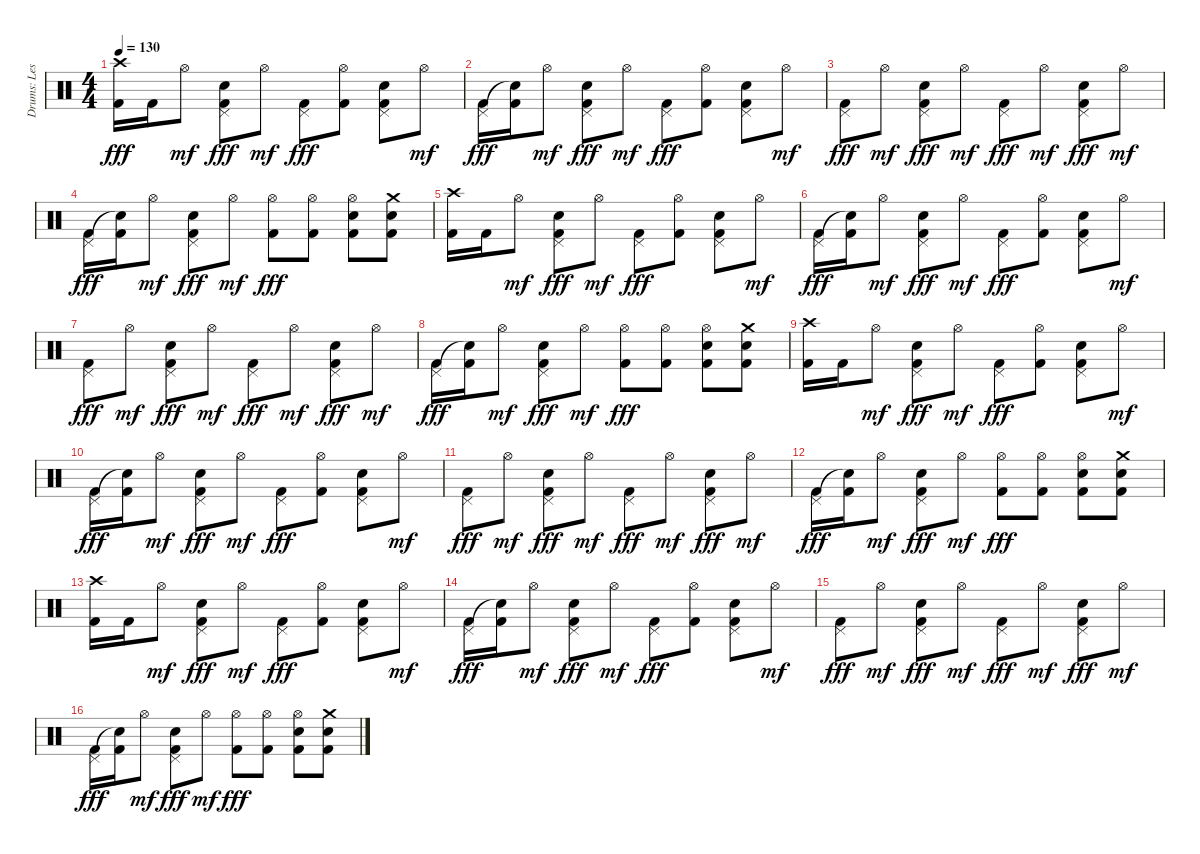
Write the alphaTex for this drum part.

\track ("Drums: Les" "Drums: Les") {instrument percussion}
\staff {score}
\articulation defaults
\ts (4 4)
\tempo 130
\clef neutral
\ks c
("Crash high (hit)" "Kick (hit) 2").16{dy fff} "Kick (hit) 2".16 "Hi-Hat (open)".8{dy mf} ("Pedal Hi-Hat (hit)" "Snare (hit) 2" "Kick (hit) 2").8{dy fff} "Hi-Hat (open)".8{dy mf} ("Pedal Hi-Hat (hit)" "Kick (hit) 2").8{dy fff} ("Hi-Hat (open)" "Kick (hit) 2").8 ("Pedal Hi-Hat (hit)" "Snare (hit) 2" "Kick (hit) 2").8 "Hi-Hat (open)".8{dy mf} |
("Pedal Hi-Hat (hit)" "Kick (hit) 2").16{dy fff} ("Snare (hit)"{t} "Kick (hit) 2").16 "Hi-Hat (open)".8{dy mf} ("Pedal Hi-Hat (hit)" "Snare (hit) 2" "Kick (hit) 2").8{dy fff} "Hi-Hat (open)".8{dy mf} ("Pedal Hi-Hat (hit)" "Kick (hit) 2").8{dy fff} ("Hi-Hat (open)" "Kick (hit) 2").8 ("Pedal Hi-Hat (hit)" "Snare (hit) 2" "Kick (hit) 2").8 "Hi-Hat (open)".8{dy mf} |
("Pedal Hi-Hat (hit)" "Kick (hit) 2").8{dy fff} "Hi-Hat (open)".8{dy mf} ("Pedal Hi-Hat (hit)" "Snare (hit) 2" "Kick (hit) 2").8{dy fff} "Hi-Hat (open)".8{dy mf} ("Pedal Hi-Hat (hit)" "Kick (hit) 2").8{dy fff} "Hi-Hat (open)".8{dy mf} ("Pedal Hi-Hat (hit)" "Snare (hit) 2" "Kick (hit) 2").8{dy fff} "Hi-Hat (open)".8{dy mf} |
("Pedal Hi-Hat (hit)" "Kick (hit) 2").16{dy fff} ("Snare (hit)"{t} "Kick (hit) 2").16 "Hi-Hat (open)".8{dy mf} ("Pedal Hi-Hat (hit)" "Snare (hit) 2" "Kick (hit) 2").8{dy fff} "Hi-Hat (open)".8{dy mf} ("Hi-Hat (open)" "Kick (hit) 2").8{dy fff} ("Hi-Hat (open)" "Kick (hit) 2").8 ("Hi-Hat (open)" "Snare (hit) 2" "Kick (hit) 2").8 ("Crash medium (hit)" "Snare (hit) 2" "Kick (hit) 2").8 |
("Crash high (hit)" "Kick (hit) 2").16 "Kick (hit) 2".16 "Hi-Hat (open)".8{dy mf} ("Pedal Hi-Hat (hit)" "Snare (hit) 2" "Kick (hit) 2").8{dy fff} "Hi-Hat (open)".8{dy mf} ("Pedal Hi-Hat (hit)" "Kick (hit) 2").8{dy fff} ("Hi-Hat (open)" "Kick (hit) 2").8 ("Pedal Hi-Hat (hit)" "Snare (hit) 2" "Kick (hit) 2").8 "Hi-Hat (open)".8{dy mf} |
("Pedal Hi-Hat (hit)" "Kick (hit) 2").16{dy fff} ("Snare (hit)"{t} "Kick (hit) 2").16 "Hi-Hat (open)".8{dy mf} ("Pedal Hi-Hat (hit)" "Snare (hit) 2" "Kick (hit) 2").8{dy fff} "Hi-Hat (open)".8{dy mf} ("Pedal Hi-Hat (hit)" "Kick (hit) 2").8{dy fff} ("Hi-Hat (open)" "Kick (hit) 2").8 ("Pedal Hi-Hat (hit)" "Snare (hit) 2" "Kick (hit) 2").8 "Hi-Hat (open)".8{dy mf} |
("Pedal Hi-Hat (hit)" "Kick (hit) 2").8{dy fff} "Hi-Hat (open)".8{dy mf} ("Pedal Hi-Hat (hit)" "Snare (hit) 2" "Kick (hit) 2").8{dy fff} "Hi-Hat (open)".8{dy mf} ("Pedal Hi-Hat (hit)" "Kick (hit) 2").8{dy fff} "Hi-Hat (open)".8{dy mf} ("Pedal Hi-Hat (hit)" "Snare (hit) 2" "Kick (hit) 2").8{dy fff} "Hi-Hat (open)".8{dy mf} |
("Pedal Hi-Hat (hit)" "Kick (hit) 2").16{dy fff} ("Snare (hit)"{t} "Kick (hit) 2").16 "Hi-Hat (open)".8{dy mf} ("Pedal Hi-Hat (hit)" "Snare (hit) 2" "Kick (hit) 2").8{dy fff} "Hi-Hat (open)".8{dy mf} ("Hi-Hat (open)" "Kick (hit) 2").8{dy fff} ("Hi-Hat (open)" "Kick (hit) 2").8 ("Hi-Hat (open)" "Snare (hit) 2" "Kick (hit) 2").8 ("Crash medium (hit)" "Snare (hit) 2" "Kick (hit) 2").8 |
("Crash high (hit)" "Kick (hit) 2").16{volume 8} "Kick (hit) 2".16 "Hi-Hat (open)".8{dy mf} ("Pedal Hi-Hat (hit)" "Snare (hit) 2" "Kick (hit) 2").8{dy fff} "Hi-Hat (open)".8{dy mf} ("Pedal Hi-Hat (hit)" "Kick (hit) 2").8{dy fff} ("Hi-Hat (open)" "Kick (hit) 2").8 ("Pedal Hi-Hat (hit)" "Snare (hit) 2" "Kick (hit) 2").8 "Hi-Hat (open)".8{dy mf} |
("Pedal Hi-Hat (hit)" "Kick (hit) 2").16{dy fff} ("Snare (hit)"{t} "Kick (hit) 2").16 "Hi-Hat (open)".8{dy mf} ("Pedal Hi-Hat (hit)" "Snare (hit) 2" "Kick (hit) 2").8{dy fff} "Hi-Hat (open)".8{dy mf} ("Pedal Hi-Hat (hit)" "Kick (hit) 2").8{dy fff} ("Hi-Hat (open)" "Kick (hit) 2").8 ("Pedal Hi-Hat (hit)" "Snare (hit) 2" "Kick (hit) 2").8 "Hi-Hat (open)".8{dy mf} |
("Pedal Hi-Hat (hit)" "Kick (hit) 2").8{dy fff} "Hi-Hat (open)".8{dy mf} ("Pedal Hi-Hat (hit)" "Snare (hit) 2" "Kick (hit) 2").8{dy fff} "Hi-Hat (open)".8{dy mf} ("Pedal Hi-Hat (hit)" "Kick (hit) 2").8{dy fff} "Hi-Hat (open)".8{dy mf} ("Pedal Hi-Hat (hit)" "Snare (hit) 2" "Kick (hit) 2").8{dy fff} "Hi-Hat (open)".8{dy mf} |
("Pedal Hi-Hat (hit)" "Kick (hit) 2").16{dy fff} ("Snare (hit)"{t} "Kick (hit) 2").16 "Hi-Hat (open)".8{dy mf} ("Pedal Hi-Hat (hit)" "Snare (hit) 2" "Kick (hit) 2").8{dy fff} "Hi-Hat (open)".8{dy mf} ("Hi-Hat (open)" "Kick (hit) 2").8{dy fff} ("Hi-Hat (open)" "Kick (hit) 2").8 ("Hi-Hat (open)" "Snare (hit) 2" "Kick (hit) 2").8 ("Crash medium (hit)" "Snare (hit) 2" "Kick (hit) 2").8 |
("Crash high (hit)" "Kick (hit) 2").16{volume 0} "Kick (hit) 2".16 "Hi-Hat (open)".8{dy mf} ("Pedal Hi-Hat (hit)" "Snare (hit) 2" "Kick (hit) 2").8{dy fff} "Hi-Hat (open)".8{dy mf} ("Pedal Hi-Hat (hit)" "Kick (hit) 2").8{dy fff} ("Hi-Hat (open)" "Kick (hit) 2").8 ("Pedal Hi-Hat (hit)" "Snare (hit) 2" "Kick (hit) 2").8 "Hi-Hat (open)".8{dy mf} |
("Pedal Hi-Hat (hit)" "Kick (hit) 2").16{dy fff} ("Snare (hit)"{t} "Kick (hit) 2").16 "Hi-Hat (open)".8{dy mf} ("Pedal Hi-Hat (hit)" "Snare (hit) 2" "Kick (hit) 2").8{dy fff} "Hi-Hat (open)".8{dy mf} ("Pedal Hi-Hat (hit)" "Kick (hit) 2").8{dy fff} ("Hi-Hat (open)" "Kick (hit) 2").8 ("Pedal Hi-Hat (hit)" "Snare (hit) 2" "Kick (hit) 2").8 "Hi-Hat (open)".8{dy mf} |
("Pedal Hi-Hat (hit)" "Kick (hit) 2").8{dy fff} "Hi-Hat (open)".8{dy mf} ("Pedal Hi-Hat (hit)" "Snare (hit) 2" "Kick (hit) 2").8{dy fff} "Hi-Hat (open)".8{dy mf} ("Pedal Hi-Hat (hit)" "Kick (hit) 2").8{dy fff} "Hi-Hat (open)".8{dy mf} ("Pedal Hi-Hat (hit)" "Snare (hit) 2" "Kick (hit) 2").8{dy fff} "Hi-Hat (open)".8{dy mf} |
("Pedal Hi-Hat (hit)" "Kick (hit) 2").16{dy fff} ("Snare (hit)"{t} "Kick (hit) 2").16 "Hi-Hat (open)".8{dy mf} ("Pedal Hi-Hat (hit)" "Snare (hit) 2" "Kick (hit) 2").8{dy fff} "Hi-Hat (open)".8{dy mf} ("Hi-Hat (open)" "Kick (hit) 2").8{dy fff} ("Hi-Hat (open)" "Kick (hit) 2").8 ("Hi-Hat (open)" "Snare (hit) 2" "Kick (hit) 2").8 ("Crash medium (hit)" "Snare (hit) 2" "Kick (hit) 2").8
